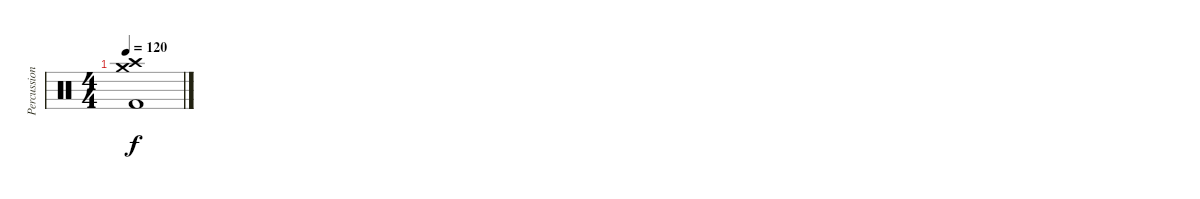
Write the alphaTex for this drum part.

\track ("Percussion" "Percussion") {instrument percussion}
\staff {score}
\articulation defaults
\ts (4 4)
\tempo 120
\clef neutral
\ks c
("Crash medium (hit)" "Crash high (hit)" "Kick (hit) 2").1{dy f}
